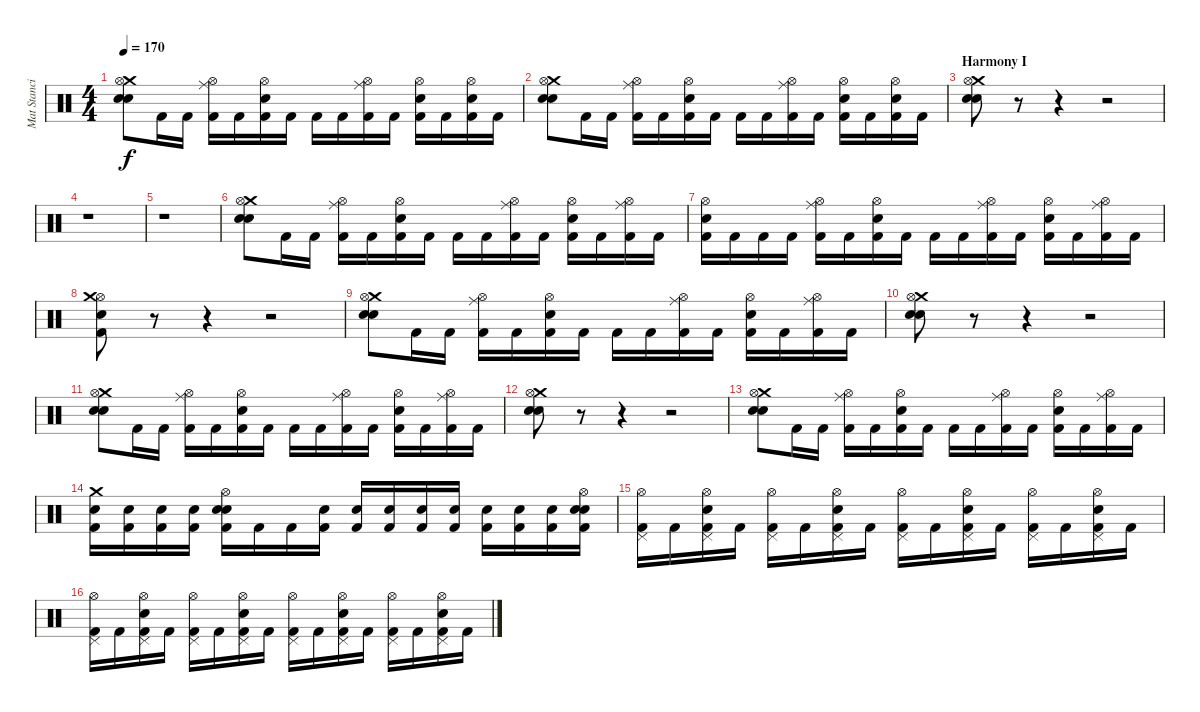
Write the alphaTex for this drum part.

\track ("Mat Stancioiu" "Mat Stanci") {instrument percussion}
\staff {score}
\articulation defaults
\ts (4 4)
\tempo 170
\clef neutral
\ks c
("Crash medium (hit)" "Hi-Hat (open)" "Snare (hit)" "Electric Snare (hit)").8{dy f} "Kick (hit) 2".16 "Kick (hit) 2".16 ("Kick (hit) 2" "Hi-Hat (open)" "Ride (middle)").16 "Kick (hit) 2".16 ("Electric Snare (hit)" "Hi-Hat (open)" "Kick (hit) 2").16 "Kick (hit) 2".16 "Kick (hit) 2".16 "Kick (hit) 2".16 ("Kick (hit) 2" "Hi-Hat (open)" "Ride (middle)").16 "Kick (hit) 2".16 ("Electric Snare (hit)" "Hi-Hat (open)" "Kick (hit) 2").16 "Kick (hit) 2".16 ("Electric Snare (hit)" "Hi-Hat (open)" "Kick (hit) 2").16 "Kick (hit) 2".16 |
("Crash medium (hit)" "Hi-Hat (open)" "Snare (hit)" "Electric Snare (hit)").8 "Kick (hit) 2".16 "Kick (hit) 2".16 ("Kick (hit) 2" "Hi-Hat (open)" "Ride (middle)").16 "Kick (hit) 2".16 ("Electric Snare (hit)" "Hi-Hat (open)" "Kick (hit) 2").16 "Kick (hit) 2".16 "Kick (hit) 2".16 "Kick (hit) 2".16 ("Kick (hit) 2" "Hi-Hat (open)" "Ride (middle)").16 "Kick (hit) 2".16 ("Electric Snare (hit)" "Hi-Hat (open)" "Kick (hit) 2").16 "Kick (hit) 2".16 ("Electric Snare (hit)" "Hi-Hat (open)" "Kick (hit) 2").16 "Kick (hit) 2".16 |
\section ("" "Harmony I")
("Crash medium (hit)" "Hi-Hat (open)" "Snare (hit)" "Electric Snare (hit)").8 r.8 r.4 r.2 |
r.1 |
r.1 |
("Crash medium (hit)" "Hi-Hat (open)" "Snare (hit)" "Electric Snare (hit)").8 "Kick (hit) 2".16 "Kick (hit) 2".16 ("Kick (hit) 2" "Hi-Hat (open)" "Ride (middle)").16 "Kick (hit) 2".16 ("Electric Snare (hit)" "Hi-Hat (open)" "Kick (hit) 2").16 "Kick (hit) 2".16 "Kick (hit) 2".16 "Kick (hit) 2".16 ("Kick (hit) 2" "Hi-Hat (open)" "Ride (middle)").16 "Kick (hit) 2".16 ("Electric Snare (hit)" "Hi-Hat (open)" "Kick (hit) 2").16 "Kick (hit) 2".16 ("Kick (hit) 2" "Hi-Hat (open)" "Ride (middle)").16 "Kick (hit) 2".16 |
("Electric Snare (hit)" "Hi-Hat (open)" "Kick (hit) 2").16 "Kick (hit) 2".16 "Kick (hit) 2".16 "Kick (hit) 2".16 ("Kick (hit) 2" "Hi-Hat (open)" "Ride (middle)").16 "Kick (hit) 2".16 ("Electric Snare (hit)" "Hi-Hat (open)" "Kick (hit) 2").16 "Kick (hit) 2".16 "Kick (hit) 2".16 "Kick (hit) 2".16 ("Kick (hit) 2" "Hi-Hat (open)" "Ride (middle)").16 "Kick (hit) 2".16 ("Electric Snare (hit)" "Hi-Hat (open)" "Kick (hit) 2").16 "Kick (hit) 2".16 ("Kick (hit) 2" "Hi-Hat (open)" "Ride (middle)").16 "Kick (hit) 2".16 |
("Electric Snare (hit)" "Hi-Hat (open)" "Kick (hit) 2" "Crash medium (hit)").8 r.8 r.4 r.2 |
("Crash medium (hit)" "Hi-Hat (open)" "Snare (hit)" "Electric Snare (hit)").8 "Kick (hit) 2".16 "Kick (hit) 2".16 ("Kick (hit) 2" "Hi-Hat (open)" "Ride (middle)").16 "Kick (hit) 2".16 ("Electric Snare (hit)" "Hi-Hat (open)" "Kick (hit) 2").16 "Kick (hit) 2".16 "Kick (hit) 2".16 "Kick (hit) 2".16 ("Kick (hit) 2" "Hi-Hat (open)" "Ride (middle)").16 "Kick (hit) 2".16 ("Electric Snare (hit)" "Hi-Hat (open)" "Kick (hit) 2").16 "Kick (hit) 2".16 ("Kick (hit) 2" "Hi-Hat (open)" "Ride (middle)").16 "Kick (hit) 2".16 |
("Crash medium (hit)" "Hi-Hat (open)" "Snare (hit)" "Electric Snare (hit)").8 r.8 r.4 r.2 |
("Crash medium (hit)" "Hi-Hat (open)" "Snare (hit)" "Electric Snare (hit)").8 "Kick (hit) 2".16 "Kick (hit) 2".16 ("Kick (hit) 2" "Hi-Hat (open)" "Ride (middle)").16 "Kick (hit) 2".16 ("Electric Snare (hit)" "Hi-Hat (open)" "Kick (hit) 2").16 "Kick (hit) 2".16 "Kick (hit) 2".16 "Kick (hit) 2".16 ("Kick (hit) 2" "Hi-Hat (open)" "Ride (middle)").16 "Kick (hit) 2".16 ("Electric Snare (hit)" "Hi-Hat (open)" "Kick (hit) 2").16 "Kick (hit) 2".16 ("Kick (hit) 2" "Hi-Hat (open)" "Ride (middle)").16 "Kick (hit) 2".16 |
("Crash medium (hit)" "Hi-Hat (open)" "Snare (hit)" "Electric Snare (hit)").8 r.8 r.4 r.2 |
("Crash medium (hit)" "Hi-Hat (open)" "Snare (hit)" "Electric Snare (hit)").8 "Kick (hit) 2".16 "Kick (hit) 2".16 ("Kick (hit) 2" "Hi-Hat (open)" "Ride (middle)").16 "Kick (hit) 2".16 ("Electric Snare (hit)" "Hi-Hat (open)" "Kick (hit) 2").16 "Kick (hit) 2".16 "Kick (hit) 2".16 "Kick (hit) 2".16 ("Kick (hit) 2" "Hi-Hat (open)" "Ride (middle)").16 "Kick (hit) 2".16 ("Electric Snare (hit)" "Hi-Hat (open)" "Kick (hit) 2").16 "Kick (hit) 2".16 ("Kick (hit) 2" "Hi-Hat (open)" "Ride (middle)").16 "Kick (hit) 2".16 |
("Kick (hit) 2" "Crash medium (hit)" "Snare (hit)").16 ("Electric Snare (hit)" "Kick (hit) 2").16 ("Electric Snare (hit)" "Kick (hit) 2").16 ("Electric Snare (hit)" "Kick (hit) 2").16 ("Electric Snare (hit)" "Kick (hit) 2" "Hi-Hat (open)" "Snare (hit)").16 "Kick (hit) 2".16 "Kick (hit) 2".16 ("Electric Snare (hit)" "Kick (hit) 2").16 ("Electric Snare (hit)" "Kick (hit) 2").16 ("Electric Snare (hit)" "Kick (hit) 2").16 ("Electric Snare (hit)" "Kick (hit) 2").16 ("Electric Snare (hit)" "Kick (hit) 2").16 ("Electric Snare (hit)" "Kick (hit) 2").16 ("Electric Snare (hit)" "Kick (hit) 2").16 ("Electric Snare (hit)" "Kick (hit) 2").16 ("Electric Snare (hit)" "Kick (hit) 2" "Hi-Hat (open)" "Snare (hit)").16 |
("Hi-Hat (open)" "Kick (hit) 2" "Pedal Hi-Hat (hit)").16 "Kick (hit) 2".16 ("Electric Snare (hit)" "Hi-Hat (open)" "Kick (hit) 2" "Pedal Hi-Hat (hit)").16 "Kick (hit) 2".16 ("Hi-Hat (open)" "Kick (hit) 2" "Pedal Hi-Hat (hit)").16 "Kick (hit) 2".16 ("Electric Snare (hit)" "Hi-Hat (open)" "Kick (hit) 2" "Pedal Hi-Hat (hit)").16 "Kick (hit) 2".16 ("Hi-Hat (open)" "Kick (hit) 2" "Pedal Hi-Hat (hit)").16 "Kick (hit) 2".16 ("Electric Snare (hit)" "Hi-Hat (open)" "Kick (hit) 2" "Pedal Hi-Hat (hit)").16 "Kick (hit) 2".16 ("Hi-Hat (open)" "Kick (hit) 2" "Pedal Hi-Hat (hit)").16 "Kick (hit) 2".16 ("Electric Snare (hit)" "Hi-Hat (open)" "Kick (hit) 2" "Pedal Hi-Hat (hit)").16 "Kick (hit) 2".16 |
("Hi-Hat (open)" "Kick (hit) 2" "Pedal Hi-Hat (hit)").16 "Kick (hit) 2".16 ("Electric Snare (hit)" "Hi-Hat (open)" "Kick (hit) 2" "Pedal Hi-Hat (hit)").16 "Kick (hit) 2".16 ("Hi-Hat (open)" "Kick (hit) 2" "Pedal Hi-Hat (hit)").16 "Kick (hit) 2".16 ("Electric Snare (hit)" "Hi-Hat (open)" "Kick (hit) 2" "Pedal Hi-Hat (hit)").16 "Kick (hit) 2".16 ("Hi-Hat (open)" "Kick (hit) 2" "Pedal Hi-Hat (hit)").16 "Kick (hit) 2".16 ("Electric Snare (hit)" "Hi-Hat (open)" "Kick (hit) 2" "Pedal Hi-Hat (hit)").16 "Kick (hit) 2".16 ("Hi-Hat (open)" "Kick (hit) 2" "Pedal Hi-Hat (hit)").16 "Kick (hit) 2".16 ("Electric Snare (hit)" "Hi-Hat (open)" "Kick (hit) 2" "Pedal Hi-Hat (hit)").16 "Kick (hit) 2".16
